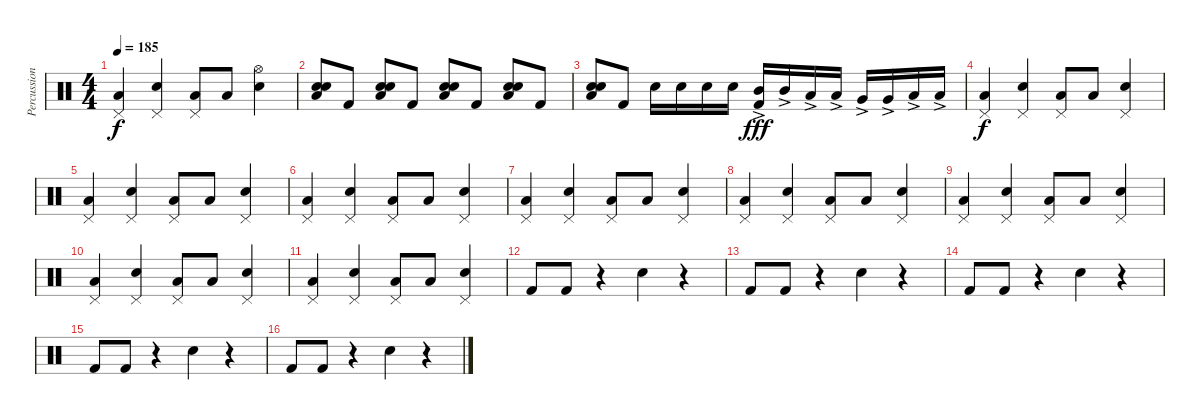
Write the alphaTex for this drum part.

\track ("Percussion" "Percussion") {instrument percussion}
\staff {score}
\articulation defaults
\ts (4 4)
\tempo 185
\clef neutral
\ks c
("Pedal Hi-Hat (hit)" "Low Tom (hit)").4{dy f} ("Pedal Hi-Hat (hit)" "Snare (hit) 2").4 ("Pedal Hi-Hat (hit)" "Low Tom (hit)").8 "Low Tom (hit)".8 ("Hi-Hat (open)" "Snare (hit) 2").4 |
("Low Tom (hit)" "Electric Snare (hit)" "Snare (hit) 2").8 "Kick (hit) 2".8 ("Low Tom (hit)" "Electric Snare (hit)" "Snare (hit) 2").8 "Kick (hit) 2".8 ("Low Tom (hit)" "Electric Snare (hit)" "Snare (hit) 2").8 "Kick (hit) 2".8 ("Low Tom (hit)" "Electric Snare (hit)" "Snare (hit) 2").8 "Kick (hit) 2".8 |
("Low Tom (hit)" "Electric Snare (hit)" "Snare (hit) 2").8 "Kick (hit) 2".8 "Snare (hit) 2".16 "Snare (hit) 2".16 "Snare (hit) 2".16 "Snare (hit) 2".16 ("Mid Tom (hit)"{ac} "Kick (hit) 2"{ac}).16{dy fff} "Mid Tom (hit)"{ac}.16 "Low Tom (hit)"{ac}.16 "Low Tom (hit)"{ac}.16 "Very Low Tom (hit)"{ac}.16 "Very Low Tom (hit)"{ac}.16 "Low Floor Tom (hit)"{ac}.16 "Low Floor Tom (hit)"{ac}.16 |
("Pedal Hi-Hat (hit)" "Low Tom (hit)").4{dy f} ("Pedal Hi-Hat (hit)" "Snare (hit) 2").4 ("Pedal Hi-Hat (hit)" "Low Tom (hit)").8 "Low Tom (hit)".8 ("Pedal Hi-Hat (hit)" "Snare (hit) 2").4 |
("Pedal Hi-Hat (hit)" "Low Tom (hit)").4 ("Pedal Hi-Hat (hit)" "Snare (hit) 2").4 ("Pedal Hi-Hat (hit)" "Low Tom (hit)").8 "Low Tom (hit)".8 ("Pedal Hi-Hat (hit)" "Snare (hit) 2").4 |
("Pedal Hi-Hat (hit)" "Low Tom (hit)").4 ("Pedal Hi-Hat (hit)" "Snare (hit) 2").4 ("Pedal Hi-Hat (hit)" "Low Tom (hit)").8 "Low Tom (hit)".8 ("Pedal Hi-Hat (hit)" "Snare (hit) 2").4 |
("Pedal Hi-Hat (hit)" "Low Tom (hit)").4 ("Pedal Hi-Hat (hit)" "Snare (hit) 2").4 ("Pedal Hi-Hat (hit)" "Low Tom (hit)").8 "Low Tom (hit)".8 ("Pedal Hi-Hat (hit)" "Snare (hit) 2").4 |
("Pedal Hi-Hat (hit)" "Low Tom (hit)").4 ("Pedal Hi-Hat (hit)" "Snare (hit) 2").4 ("Pedal Hi-Hat (hit)" "Low Tom (hit)").8 "Low Tom (hit)".8 ("Pedal Hi-Hat (hit)" "Snare (hit) 2").4 |
("Pedal Hi-Hat (hit)" "Low Tom (hit)").4 ("Pedal Hi-Hat (hit)" "Snare (hit) 2").4 ("Pedal Hi-Hat (hit)" "Low Tom (hit)").8 "Low Tom (hit)".8 ("Pedal Hi-Hat (hit)" "Snare (hit) 2").4 |
("Pedal Hi-Hat (hit)" "Low Tom (hit)").4 ("Pedal Hi-Hat (hit)" "Snare (hit) 2").4 ("Pedal Hi-Hat (hit)" "Low Tom (hit)").8 "Low Tom (hit)".8 ("Pedal Hi-Hat (hit)" "Snare (hit) 2").4 |
("Pedal Hi-Hat (hit)" "Low Tom (hit)").4 ("Pedal Hi-Hat (hit)" "Snare (hit) 2").4 ("Pedal Hi-Hat (hit)" "Low Tom (hit)").8 "Low Tom (hit)".8 ("Pedal Hi-Hat (hit)" "Snare (hit) 2").4 |
"Kick (hit) 2".8 "Kick (hit) 2".8 r.4 "Snare (hit) 2".4 r.4 |
"Kick (hit) 2".8 "Kick (hit) 2".8 r.4 "Snare (hit) 2".4 r.4 |
"Kick (hit) 2".8 "Kick (hit) 2".8 r.4 "Snare (hit) 2".4 r.4 |
"Kick (hit) 2".8 "Kick (hit) 2".8 r.4 "Snare (hit) 2".4 r.4 |
"Kick (hit) 2".8 "Kick (hit) 2".8 r.4 "Snare (hit) 2".4 r.4
